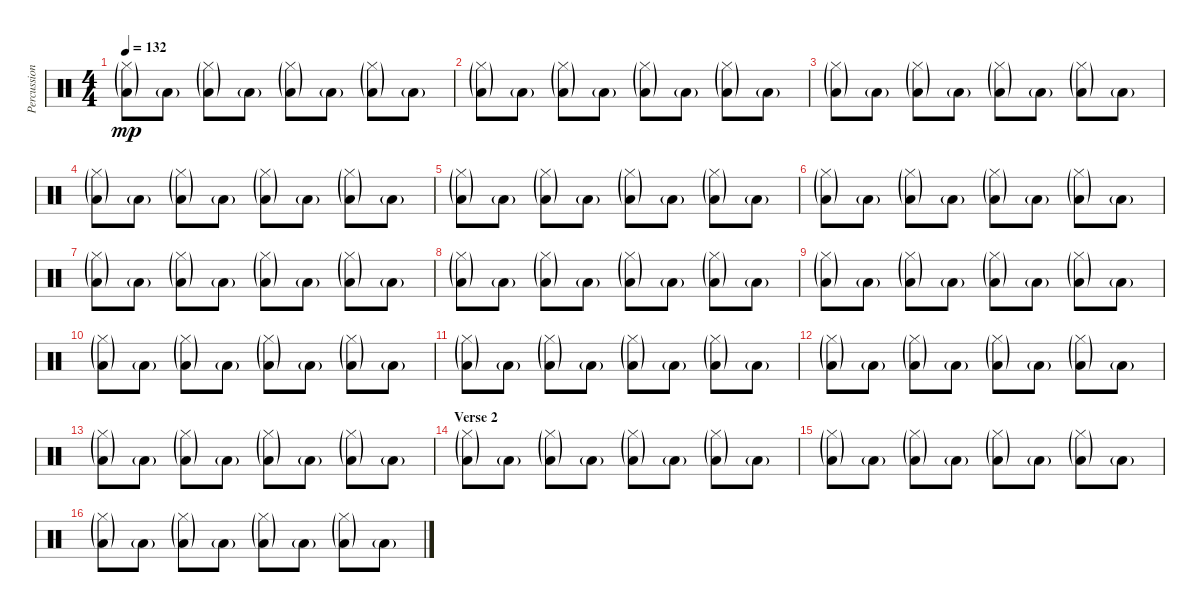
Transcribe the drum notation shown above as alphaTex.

\track ("Percussions" "Percussion") {instrument percussion}
\staff {score}
\articulation defaults
\ts (4 4)
\tempo 132
\clef neutral
\ks c
("Hi-Hat (closed)"{g} "Low Floor Tom (hit)"{g}).8{dy mp} "Low Floor Tom (hit)"{g}.8 ("Hi-Hat (closed)"{g} "Low Floor Tom (hit)"{g}).8 "Low Floor Tom (hit)"{g}.8 ("Hi-Hat (closed)"{g} "Low Floor Tom (hit)"{g}).8 "Low Floor Tom (hit)"{g}.8 ("Hi-Hat (closed)"{g} "Low Floor Tom (hit)"{g}).8 "Low Floor Tom (hit)"{g}.8 |
("Hi-Hat (closed)"{g} "Low Floor Tom (hit)"{g}).8 "Low Floor Tom (hit)"{g}.8 ("Hi-Hat (closed)"{g} "Low Floor Tom (hit)"{g}).8 "Low Floor Tom (hit)"{g}.8 ("Hi-Hat (closed)"{g} "Low Floor Tom (hit)"{g}).8 "Low Floor Tom (hit)"{g}.8 ("Hi-Hat (closed)"{g} "Low Floor Tom (hit)"{g}).8 "Low Floor Tom (hit)"{g}.8 |
("Hi-Hat (closed)"{g} "Low Floor Tom (hit)"{g}).8 "Low Floor Tom (hit)"{g}.8 ("Hi-Hat (closed)"{g} "Low Floor Tom (hit)"{g}).8 "Low Floor Tom (hit)"{g}.8 ("Hi-Hat (closed)"{g} "Low Floor Tom (hit)"{g}).8 "Low Floor Tom (hit)"{g}.8 ("Hi-Hat (closed)"{g} "Low Floor Tom (hit)"{g}).8 "Low Floor Tom (hit)"{g}.8 |
("Hi-Hat (closed)"{g} "Low Floor Tom (hit)"{g}).8 "Low Floor Tom (hit)"{g}.8 ("Hi-Hat (closed)"{g} "Low Floor Tom (hit)"{g}).8 "Low Floor Tom (hit)"{g}.8 ("Hi-Hat (closed)"{g} "Low Floor Tom (hit)"{g}).8 "Low Floor Tom (hit)"{g}.8 ("Hi-Hat (closed)"{g} "Low Floor Tom (hit)"{g}).8 "Low Floor Tom (hit)"{g}.8 |
("Hi-Hat (closed)"{g} "Low Floor Tom (hit)"{g}).8 "Low Floor Tom (hit)"{g}.8 ("Hi-Hat (closed)"{g} "Low Floor Tom (hit)"{g}).8 "Low Floor Tom (hit)"{g}.8 ("Hi-Hat (closed)"{g} "Low Floor Tom (hit)"{g}).8 "Low Floor Tom (hit)"{g}.8 ("Hi-Hat (closed)"{g} "Low Floor Tom (hit)"{g}).8 "Low Floor Tom (hit)"{g}.8 |
("Hi-Hat (closed)"{g} "Low Floor Tom (hit)"{g}).8 "Low Floor Tom (hit)"{g}.8 ("Hi-Hat (closed)"{g} "Low Floor Tom (hit)"{g}).8 "Low Floor Tom (hit)"{g}.8 ("Hi-Hat (closed)"{g} "Low Floor Tom (hit)"{g}).8 "Low Floor Tom (hit)"{g}.8 ("Hi-Hat (closed)"{g} "Low Floor Tom (hit)"{g}).8 "Low Floor Tom (hit)"{g}.8 |
("Hi-Hat (closed)"{g} "Low Floor Tom (hit)"{g}).8 "Low Floor Tom (hit)"{g}.8 ("Hi-Hat (closed)"{g} "Low Floor Tom (hit)"{g}).8 "Low Floor Tom (hit)"{g}.8 ("Hi-Hat (closed)"{g} "Low Floor Tom (hit)"{g}).8 "Low Floor Tom (hit)"{g}.8 ("Hi-Hat (closed)"{g} "Low Floor Tom (hit)"{g}).8 "Low Floor Tom (hit)"{g}.8 |
("Hi-Hat (closed)"{g} "Low Floor Tom (hit)"{g}).8 "Low Floor Tom (hit)"{g}.8 ("Hi-Hat (closed)"{g} "Low Floor Tom (hit)"{g}).8 "Low Floor Tom (hit)"{g}.8 ("Hi-Hat (closed)"{g} "Low Floor Tom (hit)"{g}).8 "Low Floor Tom (hit)"{g}.8 ("Hi-Hat (closed)"{g} "Low Floor Tom (hit)"{g}).8 "Low Floor Tom (hit)"{g}.8 |
("Hi-Hat (closed)"{g} "Low Floor Tom (hit)"{g}).8 "Low Floor Tom (hit)"{g}.8 ("Hi-Hat (closed)"{g} "Low Floor Tom (hit)"{g}).8 "Low Floor Tom (hit)"{g}.8 ("Hi-Hat (closed)"{g} "Low Floor Tom (hit)"{g}).8 "Low Floor Tom (hit)"{g}.8 ("Hi-Hat (closed)"{g} "Low Floor Tom (hit)"{g}).8 "Low Floor Tom (hit)"{g}.8 |
("Hi-Hat (closed)"{g} "Low Floor Tom (hit)"{g}).8 "Low Floor Tom (hit)"{g}.8 ("Hi-Hat (closed)"{g} "Low Floor Tom (hit)"{g}).8 "Low Floor Tom (hit)"{g}.8 ("Hi-Hat (closed)"{g} "Low Floor Tom (hit)"{g}).8 "Low Floor Tom (hit)"{g}.8 ("Hi-Hat (closed)"{g} "Low Floor Tom (hit)"{g}).8 "Low Floor Tom (hit)"{g}.8 |
("Hi-Hat (closed)"{g} "Low Floor Tom (hit)"{g}).8 "Low Floor Tom (hit)"{g}.8 ("Hi-Hat (closed)"{g} "Low Floor Tom (hit)"{g}).8 "Low Floor Tom (hit)"{g}.8 ("Hi-Hat (closed)"{g} "Low Floor Tom (hit)"{g}).8 "Low Floor Tom (hit)"{g}.8 ("Hi-Hat (closed)"{g} "Low Floor Tom (hit)"{g}).8 "Low Floor Tom (hit)"{g}.8 |
("Hi-Hat (closed)"{g} "Low Floor Tom (hit)"{g}).8 "Low Floor Tom (hit)"{g}.8 ("Hi-Hat (closed)"{g} "Low Floor Tom (hit)"{g}).8 "Low Floor Tom (hit)"{g}.8 ("Hi-Hat (closed)"{g} "Low Floor Tom (hit)"{g}).8 "Low Floor Tom (hit)"{g}.8 ("Hi-Hat (closed)"{g} "Low Floor Tom (hit)"{g}).8 "Low Floor Tom (hit)"{g}.8 |
("Hi-Hat (closed)"{g} "Low Floor Tom (hit)"{g}).8 "Low Floor Tom (hit)"{g}.8 ("Hi-Hat (closed)"{g} "Low Floor Tom (hit)"{g}).8 "Low Floor Tom (hit)"{g}.8 ("Hi-Hat (closed)"{g} "Low Floor Tom (hit)"{g}).8 "Low Floor Tom (hit)"{g}.8 ("Hi-Hat (closed)"{g} "Low Floor Tom (hit)"{g}).8 "Low Floor Tom (hit)"{g}.8 |
\section ("" "Verse 2")
("Hi-Hat (closed)"{g} "Low Floor Tom (hit)"{g}).8 "Low Floor Tom (hit)"{g}.8 ("Hi-Hat (closed)"{g} "Low Floor Tom (hit)"{g}).8 "Low Floor Tom (hit)"{g}.8 ("Hi-Hat (closed)"{g} "Low Floor Tom (hit)"{g}).8 "Low Floor Tom (hit)"{g}.8 ("Hi-Hat (closed)"{g} "Low Floor Tom (hit)"{g}).8 "Low Floor Tom (hit)"{g}.8 |
("Hi-Hat (closed)"{g} "Low Floor Tom (hit)"{g}).8 "Low Floor Tom (hit)"{g}.8 ("Hi-Hat (closed)"{g} "Low Floor Tom (hit)"{g}).8 "Low Floor Tom (hit)"{g}.8 ("Hi-Hat (closed)"{g} "Low Floor Tom (hit)"{g}).8 "Low Floor Tom (hit)"{g}.8 ("Hi-Hat (closed)"{g} "Low Floor Tom (hit)"{g}).8 "Low Floor Tom (hit)"{g}.8 |
("Hi-Hat (closed)"{g} "Low Floor Tom (hit)"{g}).8 "Low Floor Tom (hit)"{g}.8 ("Hi-Hat (closed)"{g} "Low Floor Tom (hit)"{g}).8 "Low Floor Tom (hit)"{g}.8 ("Hi-Hat (closed)"{g} "Low Floor Tom (hit)"{g}).8 "Low Floor Tom (hit)"{g}.8 ("Hi-Hat (closed)"{g} "Low Floor Tom (hit)"{g}).8 "Low Floor Tom (hit)"{g}.8
